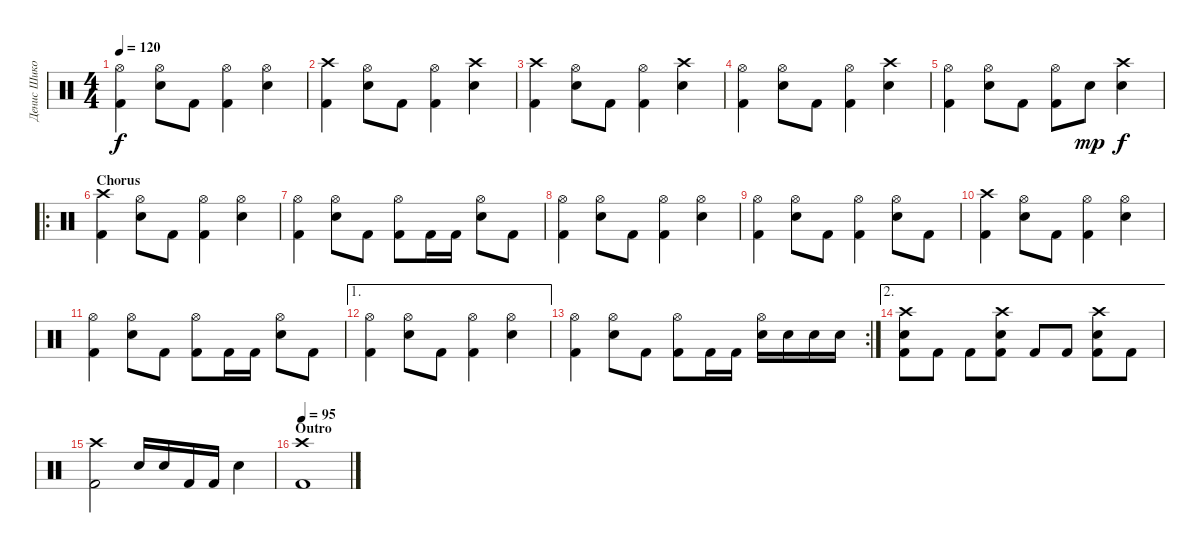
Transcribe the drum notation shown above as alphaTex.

\track ("Денис Шиков" "Денис Шико") {instrument percussion}
\staff {score}
\articulation defaults
\ts (4 4)
\tempo 120
\clef neutral
\ks c
("Hi-Hat (open)" "Kick (hit) 2").4{dy f} ("Hi-Hat (open)" "Electric Snare (hit)").8 "Kick (hit) 2".8 ("Hi-Hat (open)" "Kick (hit) 2").4 ("Hi-Hat (open)" "Electric Snare (hit)").4 |
("Crash high (hit)" "Kick (hit) 2").4 ("Hi-Hat (open)" "Electric Snare (hit)").8 "Kick (hit) 2".8 ("Hi-Hat (open)" "Kick (hit) 2").4 ("Crash high (hit)" "Electric Snare (hit)").4 |
("Crash high (hit)" "Kick (hit) 2").4 ("Hi-Hat (open)" "Electric Snare (hit)").8 "Kick (hit) 2".8 ("Hi-Hat (open)" "Kick (hit) 2").4 ("Crash high (hit)" "Electric Snare (hit)").4 |
("Hi-Hat (open)" "Kick (hit) 2").4 ("Hi-Hat (open)" "Electric Snare (hit)").8 "Kick (hit) 2".8 ("Hi-Hat (open)" "Kick (hit) 2").4 ("Crash high (hit)" "Electric Snare (hit)").4 |
("Hi-Hat (open)" "Kick (hit) 2").4 ("Hi-Hat (open)" "Electric Snare (hit)").8 "Kick (hit) 2".8 ("Hi-Hat (open)" "Kick (hit) 2").8 "Electric Snare (hit)".8{dy mp} ("Crash high (hit)" "Electric Snare (hit)").4{dy f} |
\ro
\section ("" "Chorus")
("Crash high (hit)" "Kick (hit) 2").4 ("Hi-Hat (open)" "Electric Snare (hit)").8 "Kick (hit) 2".8 ("Hi-Hat (open)" "Kick (hit) 2").4 ("Hi-Hat (open)" "Electric Snare (hit)").4 |
("Hi-Hat (open)" "Kick (hit) 2").4 ("Hi-Hat (open)" "Electric Snare (hit)").8 "Kick (hit) 2".8 ("Hi-Hat (open)" "Kick (hit) 2").8 "Kick (hit) 2".16 "Kick (hit) 2".16 ("Hi-Hat (open)" "Electric Snare (hit)").8 "Kick (hit) 2".8 |
("Hi-Hat (open)" "Kick (hit) 2").4 ("Hi-Hat (open)" "Electric Snare (hit)").8 "Kick (hit) 2".8 ("Hi-Hat (open)" "Kick (hit) 2").4 ("Hi-Hat (open)" "Electric Snare (hit)").4 |
("Hi-Hat (open)" "Kick (hit) 2").4 ("Hi-Hat (open)" "Electric Snare (hit)").8 "Kick (hit) 2".8 ("Hi-Hat (open)" "Kick (hit) 2").4 ("Hi-Hat (open)" "Electric Snare (hit)").8 "Kick (hit) 2".8 |
("Crash high (hit)" "Kick (hit) 2").4 ("Hi-Hat (open)" "Electric Snare (hit)").8 "Kick (hit) 2".8 ("Hi-Hat (open)" "Kick (hit) 2").4 ("Hi-Hat (open)" "Electric Snare (hit)").4 |
("Hi-Hat (open)" "Kick (hit) 2").4 ("Hi-Hat (open)" "Electric Snare (hit)").8 "Kick (hit) 2".8 ("Hi-Hat (open)" "Kick (hit) 2").8 "Kick (hit) 2".16 "Kick (hit) 2".16 ("Hi-Hat (open)" "Electric Snare (hit)").8 "Kick (hit) 2".8 |
\ae 1
("Hi-Hat (open)" "Kick (hit) 2").4 ("Hi-Hat (open)" "Electric Snare (hit)").8 "Kick (hit) 2".8 ("Hi-Hat (open)" "Kick (hit) 2").4 ("Hi-Hat (open)" "Electric Snare (hit)").4 |
\rc 2
("Hi-Hat (open)" "Kick (hit) 2").4 ("Hi-Hat (open)" "Electric Snare (hit)").8 "Kick (hit) 2".8 ("Hi-Hat (open)" "Kick (hit) 2").8 "Kick (hit) 2".16 "Kick (hit) 2".16 ("Hi-Hat (open)" "Electric Snare (hit)").16 "Electric Snare (hit)".16 "Electric Snare (hit)".16 "Electric Snare (hit)".16 |
\ae 2
("Crash high (hit)" "Electric Snare (hit)" "Kick (hit) 2").8 "Kick (hit) 2".8 "Kick (hit) 2".8 ("Crash high (hit)" "Electric Snare (hit)" "Kick (hit) 2").8 "Kick (hit) 2".8 "Kick (hit) 2".8 ("Crash high (hit)" "Electric Snare (hit)" "Kick (hit) 2").8 "Kick (hit) 2".8 |
("Crash high (hit)" "Kick (hit) 2").2 "Electric Snare (hit)".16 "Electric Snare (hit)".16 "Kick (hit) 2".16 "Kick (hit) 2".16 "Electric Snare (hit)".4 |
\section ("" "Outro")
\tempo 95
("Crash high (hit)" "Kick (hit) 2").1
